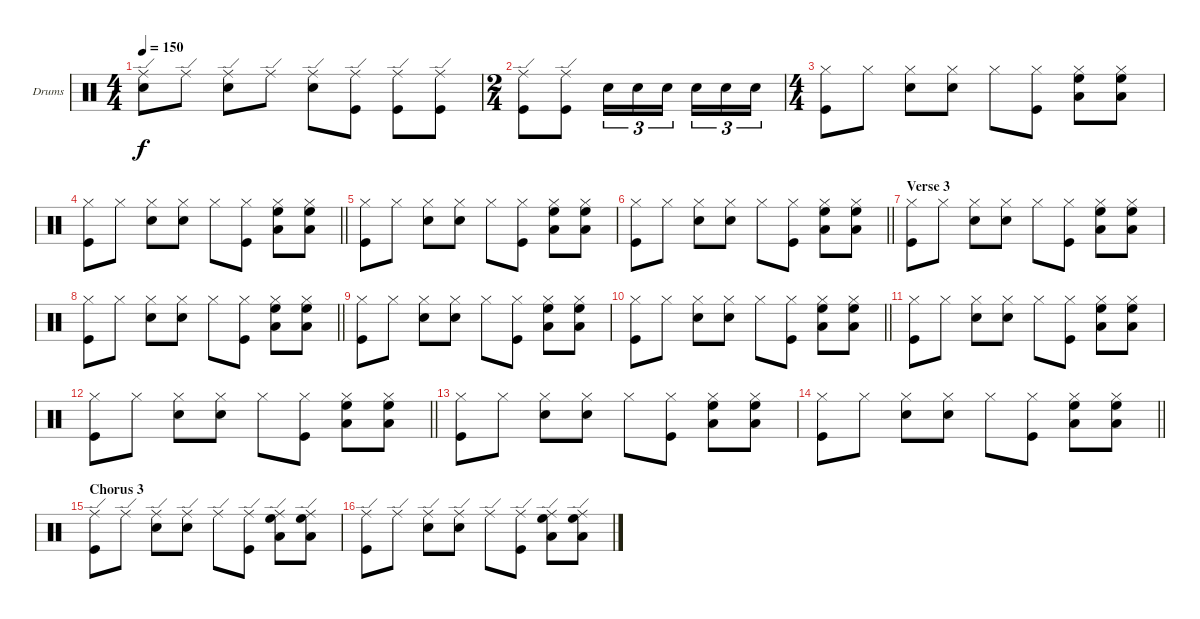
\bracketExtendMode groupsimilarinstruments
\firstSystemTrackNameOrientation horizontal
\otherSystemsTrackNameOrientation horizontal
\track ("Drumkit" "Drums") {instrument percussion}
\staff {score}
\articulation defaults
\ts (4 4)
\tempo 150
\clef neutral
\ks c
("Ride (edge)" "Snare (hit) 2").8{dy f} "Ride (edge)".8 ("Ride (edge)" "Snare (hit) 2").8 "Ride (edge)".8 ("Ride (edge)" "Snare (hit) 2").8 ("Ride (edge)" "Kick (hit)").8 ("Ride (edge)" "Kick (hit)").8 ("Ride (edge)" "Kick (hit)").8 |
\ts (2 4)
\beaming (8 2 2)
("Ride (edge)" "Kick (hit)").8 ("Ride (edge)" "Kick (hit)").8 "Snare (hit) 2".16{tu (3 2)} "Snare (hit) 2".16{tu (3 2)} "Snare (hit) 2".16{tu (3 2)} "Snare (hit) 2".16{tu (3 2)} "Snare (hit) 2".16{tu (3 2)} "Snare (hit) 2".16{tu (3 2)} |
\ts (4 4)
\beaming (8 2 2 2 2)
("Hi-Hat (closed)" "Kick (hit)").8 "Hi-Hat (closed)".8 ("Hi-Hat (closed)" "Snare (hit) 2").8 ("Hi-Hat (closed)" "Snare (hit) 2").8 "Hi-Hat (closed)".8 ("Hi-Hat (closed)" "Kick (hit)").8 ("Hi-Hat (closed)" "High Floor Tom (hit)" "Low Tom (hit)").8 ("Hi-Hat (closed)" "High Floor Tom (hit)" "Low Tom (hit)").8 |
\barLineRight lightlight
("Hi-Hat (closed)" "Kick (hit)").8 "Hi-Hat (closed)".8 ("Hi-Hat (closed)" "Snare (hit) 2").8 ("Hi-Hat (closed)" "Snare (hit) 2").8 "Hi-Hat (closed)".8 ("Hi-Hat (closed)" "Kick (hit)").8 ("Hi-Hat (closed)" "High Floor Tom (hit)" "Low Tom (hit)").8 ("Hi-Hat (closed)" "High Floor Tom (hit)" "Low Tom (hit)").8 |
("Hi-Hat (closed)" "Kick (hit)").8 "Hi-Hat (closed)".8 ("Hi-Hat (closed)" "Snare (hit) 2").8 ("Hi-Hat (closed)" "Snare (hit) 2").8 "Hi-Hat (closed)".8 ("Hi-Hat (closed)" "Kick (hit)").8 ("Hi-Hat (closed)" "High Floor Tom (hit)" "Low Tom (hit)").8 ("Hi-Hat (closed)" "High Floor Tom (hit)" "Low Tom (hit)").8 |
\barLineRight lightlight
("Hi-Hat (closed)" "Kick (hit)").8 "Hi-Hat (closed)".8 ("Hi-Hat (closed)" "Snare (hit) 2").8 ("Hi-Hat (closed)" "Snare (hit) 2").8 "Hi-Hat (closed)".8 ("Hi-Hat (closed)" "Kick (hit)").8 ("Hi-Hat (closed)" "High Floor Tom (hit)" "Low Tom (hit)").8 ("Hi-Hat (closed)" "High Floor Tom (hit)" "Low Tom (hit)").8 |
\section ("" "Verse 3")
("Hi-Hat (closed)" "Kick (hit)").8 "Hi-Hat (closed)".8 ("Hi-Hat (closed)" "Snare (hit) 2").8 ("Hi-Hat (closed)" "Snare (hit) 2").8 "Hi-Hat (closed)".8 ("Hi-Hat (closed)" "Kick (hit)").8 ("Hi-Hat (closed)" "High Floor Tom (hit)" "Low Tom (hit)").8 ("Hi-Hat (closed)" "High Floor Tom (hit)" "Low Tom (hit)").8 |
\barLineRight lightlight
("Hi-Hat (closed)" "Kick (hit)").8 "Hi-Hat (closed)".8 ("Hi-Hat (closed)" "Snare (hit) 2").8 ("Hi-Hat (closed)" "Snare (hit) 2").8 "Hi-Hat (closed)".8 ("Hi-Hat (closed)" "Kick (hit)").8 ("Hi-Hat (closed)" "High Floor Tom (hit)" "Low Tom (hit)").8 ("Hi-Hat (closed)" "High Floor Tom (hit)" "Low Tom (hit)").8 |
("Hi-Hat (closed)" "Kick (hit)").8 "Hi-Hat (closed)".8 ("Hi-Hat (closed)" "Snare (hit) 2").8 ("Hi-Hat (closed)" "Snare (hit) 2").8 "Hi-Hat (closed)".8 ("Hi-Hat (closed)" "Kick (hit)").8 ("Hi-Hat (closed)" "High Floor Tom (hit)" "Low Tom (hit)").8 ("Hi-Hat (closed)" "High Floor Tom (hit)" "Low Tom (hit)").8 |
\barLineRight lightlight
("Hi-Hat (closed)" "Kick (hit)").8 "Hi-Hat (closed)".8 ("Hi-Hat (closed)" "Snare (hit) 2").8 ("Hi-Hat (closed)" "Snare (hit) 2").8 "Hi-Hat (closed)".8 ("Hi-Hat (closed)" "Kick (hit)").8 ("Hi-Hat (closed)" "High Floor Tom (hit)" "Low Tom (hit)").8 ("Hi-Hat (closed)" "High Floor Tom (hit)" "Low Tom (hit)").8 |
("Hi-Hat (closed)" "Kick (hit)").8 "Hi-Hat (closed)".8 ("Hi-Hat (closed)" "Snare (hit) 2").8 ("Hi-Hat (closed)" "Snare (hit) 2").8 "Hi-Hat (closed)".8 ("Hi-Hat (closed)" "Kick (hit)").8 ("Hi-Hat (closed)" "High Floor Tom (hit)" "Low Tom (hit)").8 ("Hi-Hat (closed)" "High Floor Tom (hit)" "Low Tom (hit)").8 |
\barLineRight lightlight
("Hi-Hat (closed)" "Kick (hit)").8 "Hi-Hat (closed)".8 ("Hi-Hat (closed)" "Snare (hit) 2").8 ("Hi-Hat (closed)" "Snare (hit) 2").8 "Hi-Hat (closed)".8 ("Hi-Hat (closed)" "Kick (hit)").8 ("Hi-Hat (closed)" "High Floor Tom (hit)" "Low Tom (hit)").8 ("Hi-Hat (closed)" "High Floor Tom (hit)" "Low Tom (hit)").8 |
("Hi-Hat (closed)" "Kick (hit)").8 "Hi-Hat (closed)".8 ("Hi-Hat (closed)" "Snare (hit) 2").8 ("Hi-Hat (closed)" "Snare (hit) 2").8 "Hi-Hat (closed)".8 ("Hi-Hat (closed)" "Kick (hit)").8 ("Hi-Hat (closed)" "High Floor Tom (hit)" "Low Tom (hit)").8 ("Hi-Hat (closed)" "High Floor Tom (hit)" "Low Tom (hit)").8 |
\barLineRight lightlight
("Hi-Hat (closed)" "Kick (hit)").8 "Hi-Hat (closed)".8 ("Hi-Hat (closed)" "Snare (hit) 2").8 ("Hi-Hat (closed)" "Snare (hit) 2").8 "Hi-Hat (closed)".8 ("Hi-Hat (closed)" "Kick (hit)").8 ("Hi-Hat (closed)" "High Floor Tom (hit)" "Low Tom (hit)").8 ("Hi-Hat (closed)" "High Floor Tom (hit)" "Low Tom (hit)").8 |
\section ("" "Chorus 3")
("Ride (edge)" "Kick (hit)").8 "Ride (edge)".8 ("Ride (edge)" "Snare (hit) 2").8 ("Ride (edge)" "Snare (hit) 2").8 "Ride (edge)".8 ("Ride (edge)" "Kick (hit)").8 ("Ride (edge)" "High Floor Tom (hit)" "Low Tom (hit)").8 ("Ride (edge)" "High Floor Tom (hit)" "Low Tom (hit)").8 |
("Ride (edge)" "Kick (hit)").8 "Ride (edge)".8 ("Ride (edge)" "Snare (hit) 2").8 ("Ride (edge)" "Snare (hit) 2").8 "Ride (edge)".8 ("Ride (edge)" "Kick (hit)").8 ("Ride (edge)" "High Floor Tom (hit)" "Low Tom (hit)").8 ("Ride (edge)" "High Floor Tom (hit)" "Low Tom (hit)").8
